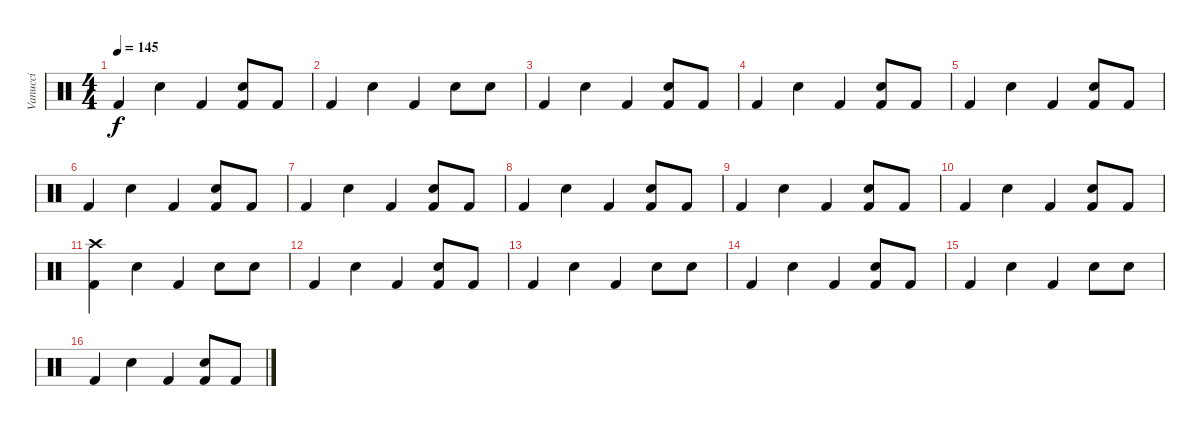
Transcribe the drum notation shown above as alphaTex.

\track ("Vanucci" "Vanucci") {instrument percussion}
\staff {score}
\articulation defaults
\ts (4 4)
\tempo 145
\clef neutral
\ks c "Kick (hit) 2".4{dy f} "Electric Snare (hit)".4 "Kick (hit) 2".4
("Electric Snare (hit)" "Kick (hit) 2").8 "Kick (hit) 2".8 |
"Kick (hit) 2".4 "Electric Snare (hit)".4 "Kick (hit) 2".4 "Electric Snare (hit)".8 "Electric Snare (hit)".8 |
"Kick (hit) 2".4 "Electric Snare (hit)".4 "Kick (hit) 2".4 ("Electric Snare (hit)" "Kick (hit) 2").8 "Kick (hit) 2".8 |
"Kick (hit) 2".4 "Electric Snare (hit)".4 "Kick (hit) 2".4 ("Electric Snare (hit)" "Kick (hit) 2").8 "Kick (hit) 2".8 |
"Kick (hit) 2".4 "Electric Snare (hit)".4 "Kick (hit) 2".4 ("Electric Snare (hit)" "Kick (hit) 2").8 "Kick (hit) 2".8 |
"Kick (hit) 2".4 "Electric Snare (hit)".4 "Kick (hit) 2".4 ("Electric Snare (hit)" "Kick (hit) 2").8 "Kick (hit) 2".8 |
"Kick (hit) 2".4 "Electric Snare (hit)".4 "Kick (hit) 2".4 ("Electric Snare (hit)" "Kick (hit) 2").8 "Kick (hit) 2".8 |
"Kick (hit) 2".4 "Electric Snare (hit)".4 "Kick (hit) 2".4 ("Electric Snare (hit)" "Kick (hit) 2").8 "Kick (hit) 2".8 |
"Kick (hit) 2".4 "Electric Snare (hit)".4 "Kick (hit) 2".4 ("Electric Snare (hit)" "Kick (hit) 2").8 "Kick (hit) 2".8 |
"Kick (hit) 2".4 "Electric Snare (hit)".4 "Kick (hit) 2".4 ("Electric Snare (hit)" "Kick (hit) 2").8 "Kick (hit) 2".8 |
("Crash high (hit)" "Kick (hit) 2").4 "Electric Snare (hit)".4 "Kick (hit) 2".4 "Electric Snare (hit)".8 "Electric Snare (hit)".8 |
"Kick (hit) 2".4 "Electric Snare (hit)".4 "Kick (hit) 2".4 ("Electric Snare (hit)" "Kick (hit) 2").8 "Kick (hit) 2".8 |
"Kick (hit) 2".4 "Electric Snare (hit)".4 "Kick (hit) 2".4 "Electric Snare (hit)".8 "Electric Snare (hit)".8 |
"Kick (hit) 2".4 "Electric Snare (hit)".4 "Kick (hit) 2".4 ("Electric Snare (hit)" "Kick (hit) 2").8 "Kick (hit) 2".8 |
"Kick (hit) 2".4 "Electric Snare (hit)".4 "Kick (hit) 2".4 "Electric Snare (hit)".8 "Electric Snare (hit)".8 |
"Kick (hit) 2".4 "Electric Snare (hit)".4 "Kick (hit) 2".4 ("Electric Snare (hit)" "Kick (hit) 2").8 "Kick (hit) 2".8
